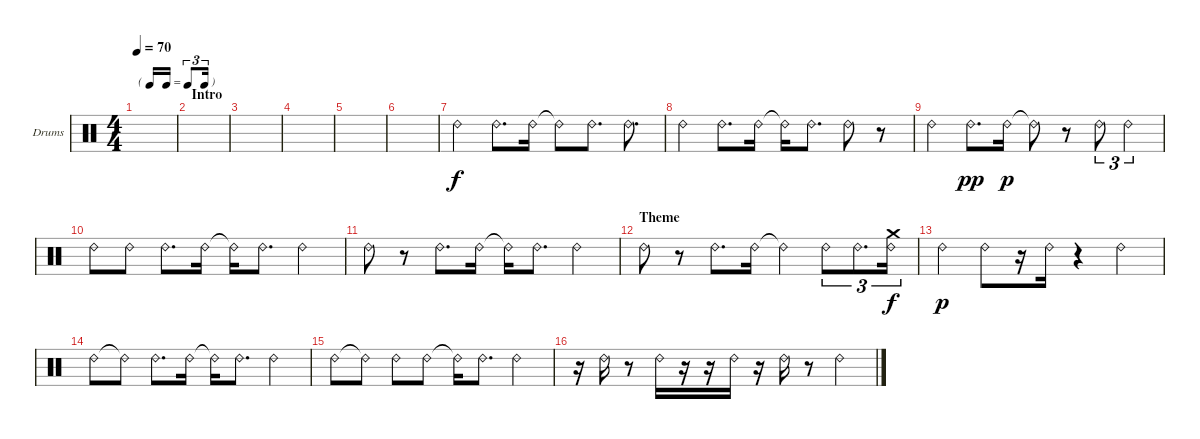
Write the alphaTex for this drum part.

\bracketExtendMode groupsimilarinstruments
\firstSystemTrackNameOrientation horizontal
\otherSystemsTrackNameOrientation horizontal
\track ("OH" "Drums") {instrument percussion}
\staff {score}
\articulation defaults
\ts (4 4)
\tf triplet16th
\tempo 70
\clef neutral
\ks c
|
\section ("" "Intro")
\scale
0.405622 |
\scale
0.369478
\ks aminor
|
\scale
0.2249 |
\scale
0.333333 |
\scale
0.333333 |
\scale
0.333333 "Ride (bell) 2".4 "Ride (bell) 2".8{d} "Ride (bell) 2".16 "Ride (bell) 2"{t}.8 "Ride (bell) 2".8{d} "Ride (bell) 2".8{d} |
\scale
0.333333 "Ride (bell) 2".4 "Ride (bell) 2".8{d} "Ride (bell) 2".16 "Ride (bell) 2"{t}.16 "Ride (bell) 2".8{d} "Ride (bell) 2".8 r.8 |
"Ride (bell) 2".4 "Ride (bell) 2".8{d dy pp} "Ride (bell) 2".16{dy p} "Ride (bell) 2"{t}.8 r.8 "Ride (bell) 2".8{tu (3 2)} "Ride (bell) 2".4{tu (3 2)} |
"Ride (bell) 2".8 "Ride (bell) 2".8 "Ride (bell) 2".8{d} "Ride (bell) 2".16 "Ride (bell) 2"{t}.16 "Ride (bell) 2".8{d} "Ride (bell) 2".4 |
"Ride (bell) 2".8 r.8 "Ride (bell) 2".8{d} "Ride (bell) 2".16 "Ride (bell) 2"{t}.16 "Ride (bell) 2".8{d} "Ride (bell) 2".4 |
\section ("" "Theme")
"Ride (bell) 2".8 r.8 "Ride (bell) 2".8{d} "Ride (bell) 2".16 "Ride (bell) 2"{t}.4 "Ride (bell) 2".8{tu (3 2)} "Ride (bell) 2".8{d tu (3 2)} ("Ride (bell) 2" "Crash medium (hit)").16{tu (3 2) dy f} |
"Ride (bell) 2".4{dy p} "Ride (bell) 2".8 r.16 "Ride (bell) 2".16 r.4 "Ride (bell) 2".4 |
"Ride (bell) 2".8 "Ride (bell) 2"{t}.8 "Ride (bell) 2".8{d} "Ride (bell) 2".16 "Ride (bell) 2"{t}.16 "Ride (bell) 2".8{d} "Ride (bell) 2".4 |
"Ride (bell) 2".8 "Ride (bell) 2"{t}.8 "Ride (bell) 2".8 "Ride (bell) 2".8 "Ride (bell) 2"{t}.16 "Ride (bell) 2".8{d} "Ride (bell) 2".4 |
\scale
0.333333 r.16 "Ride (bell) 2".16 r.8 "Ride (bell) 2".16 r.16 r.16 "Ride (bell) 2".16 r.16 "Ride (bell) 2".16 r.8 "Ride (bell) 2".4
